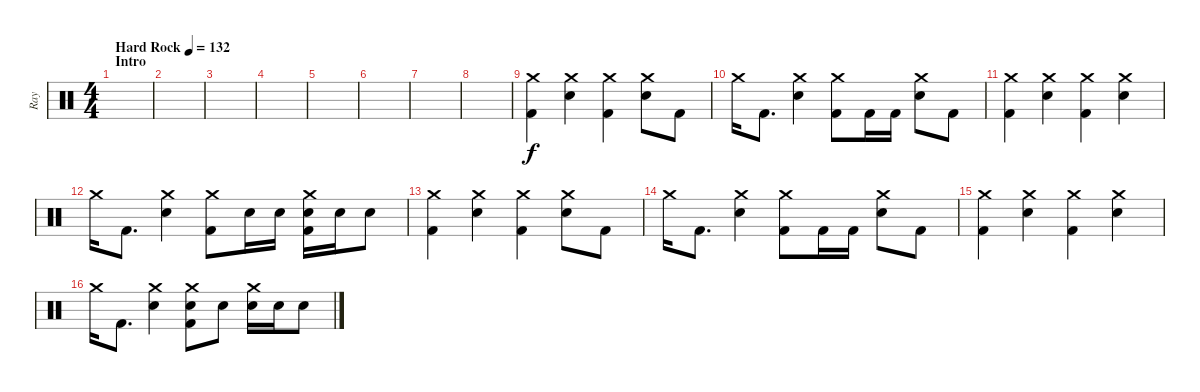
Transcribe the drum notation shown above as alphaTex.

\track ("Ray" "Ray") {instrument percussion}
\staff {score}
\articulation defaults
\ts (4 4)
\section ("" "Intro")
\tempo (132 "Hard Rock")
\clef neutral
\ks c
|
|
|
|
|
|
|
|
("Crash medium (hit)" "Kick (hit) 2").4 ("Crash medium (hit)" "Snare (hit) 2").4 ("Crash medium (hit)" "Kick (hit) 2").4 ("Crash medium (hit)" "Snare (hit) 2").8 "Kick (hit) 2".8 |
"Crash medium (hit)".16 "Kick (hit) 2".8{d} ("Crash medium (hit)" "Snare (hit) 2").4 ("Crash medium (hit)" "Kick (hit) 2").8 "Kick (hit) 2".16 "Kick (hit) 2".16 ("Crash medium (hit)" "Snare (hit) 2").8 "Kick (hit) 2".8 |
("Crash medium (hit)" "Kick (hit) 2").4 ("Crash medium (hit)" "Snare (hit) 2").4 ("Crash medium (hit)" "Kick (hit) 2").4 ("Crash medium (hit)" "Snare (hit) 2").4 |
"Crash medium (hit)".16 "Kick (hit) 2".8{d} ("Crash medium (hit)" "Snare (hit) 2").4 ("Crash medium (hit)" "Kick (hit) 2").8 "Snare (hit) 2".16 "Snare (hit) 2".16 ("Crash medium (hit)" "Snare (hit) 2" "Kick (hit) 2").16 "Snare (hit) 2".16 "Snare (hit) 2".8 |
("Crash medium (hit)" "Kick (hit) 2").4 ("Crash medium (hit)" "Snare (hit) 2").4 ("Crash medium (hit)" "Kick (hit) 2").4 ("Crash medium (hit)" "Snare (hit) 2").8 "Kick (hit) 2".8 |
"Crash medium (hit)".16 "Kick (hit) 2".8{d} ("Crash medium (hit)" "Snare (hit) 2").4 ("Crash medium (hit)" "Kick (hit) 2").8 "Kick (hit) 2".16 "Kick (hit) 2".16 ("Crash medium (hit)" "Snare (hit) 2").8 "Kick (hit) 2".8 |
("Crash medium (hit)" "Kick (hit) 2").4 ("Crash medium (hit)" "Snare (hit) 2").4 ("Crash medium (hit)" "Kick (hit) 2").4 ("Crash medium (hit)" "Snare (hit) 2").4 |
"Crash medium (hit)".16 "Kick (hit) 2".8{d} ("Crash medium (hit)" "Snare (hit) 2").4 ("Crash medium (hit)" "Snare (hit) 2" "Kick (hit) 2").8 "Snare (hit) 2".8 ("Crash medium (hit)" "Snare (hit) 2").16 "Snare (hit) 2".16 "Snare (hit) 2".8
